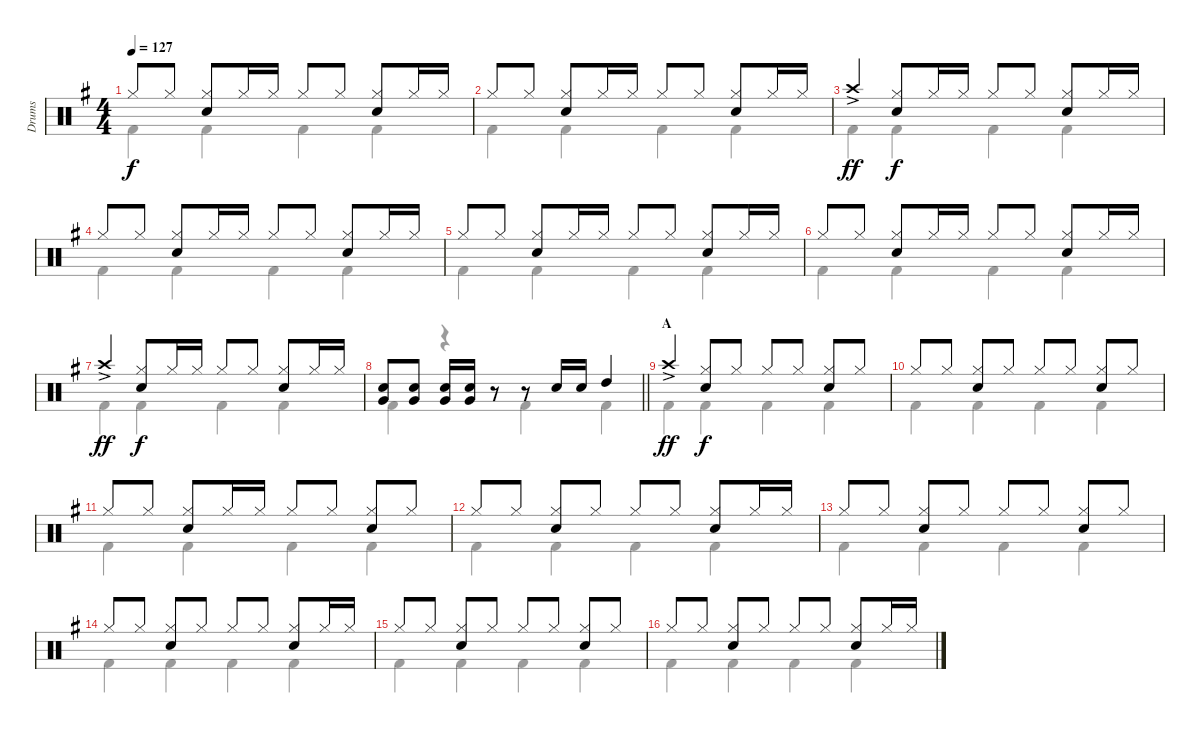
\track ("Drums" "Drums") {instrument percussion}
\staff {score}
\articulation defaults
\voice
\ts (4 4)
\tempo 127
\clef neutral
\ks g "Hi-Hat (closed)".8{dy f} "Hi-Hat (closed)".8
("Hi-Hat (closed)" "Snare (hit) 2").8 "Hi-Hat (closed)".16 "Hi-Hat (closed)".16 "Hi-Hat (closed)".8 "Hi-Hat (closed)".8 ("Hi-Hat (closed)" "Snare (hit) 2").8 "Hi-Hat (closed)".16 "Hi-Hat (closed)".16 |
"Hi-Hat (closed)".8 "Hi-Hat (closed)".8 ("Hi-Hat (closed)" "Snare (hit) 2").8 "Hi-Hat (closed)".16 "Hi-Hat (closed)".16 "Hi-Hat (closed)".8 "Hi-Hat (closed)".8 ("Hi-Hat (closed)" "Snare (hit) 2").8 "Hi-Hat (closed)".16 "Hi-Hat (closed)".16 |
"Crash high (hit)"{ac}.4{dy ff} ("Hi-Hat (closed)" "Snare (hit) 2").8{dy f} "Hi-Hat (closed)".16 "Hi-Hat (closed)".16 "Hi-Hat (closed)".8 "Hi-Hat (closed)".8 ("Hi-Hat (closed)" "Snare (hit) 2").8 "Hi-Hat (closed)".16 "Hi-Hat (closed)".16 |
"Hi-Hat (closed)".8 "Hi-Hat (closed)".8 ("Hi-Hat (closed)" "Snare (hit) 2").8 "Hi-Hat (closed)".16 "Hi-Hat (closed)".16 "Hi-Hat (closed)".8 "Hi-Hat (closed)".8 ("Hi-Hat (closed)" "Snare (hit) 2").8 "Hi-Hat (closed)".16 "Hi-Hat (closed)".16 |
"Hi-Hat (closed)".8 "Hi-Hat (closed)".8 ("Hi-Hat (closed)" "Snare (hit) 2").8 "Hi-Hat (closed)".16 "Hi-Hat (closed)".16 "Hi-Hat (closed)".8 "Hi-Hat (closed)".8 ("Hi-Hat (closed)" "Snare (hit) 2").8 "Hi-Hat (closed)".16 "Hi-Hat (closed)".16 |
"Hi-Hat (closed)".8 "Hi-Hat (closed)".8 ("Hi-Hat (closed)" "Snare (hit) 2").8 "Hi-Hat (closed)".16 "Hi-Hat (closed)".16 "Hi-Hat (closed)".8 "Hi-Hat (closed)".8 ("Hi-Hat (closed)" "Snare (hit) 2").8 "Hi-Hat (closed)".16 "Hi-Hat (closed)".16 |
"Crash high (hit)"{ac}.4{dy ff} ("Hi-Hat (closed)" "Snare (hit) 2").8{dy f} "Hi-Hat (closed)".16 "Hi-Hat (closed)".16 "Hi-Hat (closed)".8 "Hi-Hat (closed)".8 ("Hi-Hat (closed)" "Snare (hit) 2").8 "Hi-Hat (closed)".16 "Hi-Hat (closed)".16 |
\barLineRight lightlight
("Snare (hit) 2" "Very Low Tom (hit)").8 ("Snare (hit) 2" "Very Low Tom (hit)").8 ("Snare (hit) 2" "Very Low Tom (hit)").16 ("Snare (hit) 2" "Very Low Tom (hit)").16 r.8 r.8 "Snare (hit) 2".16 "Snare (hit) 2".16 "High Tom (hit)".4 |
\section ("" "A")
"Crash high (hit)"{ac}.4{dy ff} ("Hi-Hat (closed)" "Snare (hit) 2").8{dy f} "Hi-Hat (closed)".8 "Hi-Hat (closed)".8 "Hi-Hat (closed)".8 ("Hi-Hat (closed)" "Snare (hit) 2").8 "Hi-Hat (closed)".8 |
"Hi-Hat (closed)".8 "Hi-Hat (closed)".8 ("Hi-Hat (closed)" "Snare (hit) 2").8 "Hi-Hat (closed)".8 "Hi-Hat (closed)".8 "Hi-Hat (closed)".8 ("Hi-Hat (closed)" "Snare (hit) 2").8 "Hi-Hat (closed)".8 |
"Hi-Hat (closed)".8 "Hi-Hat (closed)".8 ("Hi-Hat (closed)" "Snare (hit) 2").8 "Hi-Hat (closed)".16 "Hi-Hat (closed)".16 "Hi-Hat (closed)".8 "Hi-Hat (closed)".8 ("Hi-Hat (closed)" "Snare (hit) 2").8 "Hi-Hat (closed)".8 |
"Hi-Hat (closed)".8 "Hi-Hat (closed)".8 ("Hi-Hat (closed)" "Snare (hit) 2").8 "Hi-Hat (closed)".8 "Hi-Hat (closed)".8 "Hi-Hat (closed)".8 ("Hi-Hat (closed)" "Snare (hit) 2").8 "Hi-Hat (closed)".16 "Hi-Hat (closed)".16 |
"Hi-Hat (closed)".8 "Hi-Hat (closed)".8 ("Hi-Hat (closed)" "Snare (hit) 2").8 "Hi-Hat (closed)".8 "Hi-Hat (closed)".8 "Hi-Hat (closed)".8 ("Hi-Hat (closed)" "Snare (hit) 2").8 "Hi-Hat (closed)".8 |
"Hi-Hat (closed)".8 "Hi-Hat (closed)".8 ("Hi-Hat (closed)" "Snare (hit) 2").8 "Hi-Hat (closed)".8 "Hi-Hat (closed)".8 "Hi-Hat (closed)".8 ("Hi-Hat (closed)" "Snare (hit) 2").8 "Hi-Hat (closed)".16 "Hi-Hat (closed)".16 |
"Hi-Hat (closed)".8 "Hi-Hat (closed)".8 ("Hi-Hat (closed)" "Snare (hit) 2").8 "Hi-Hat (closed)".8 "Hi-Hat (closed)".8 "Hi-Hat (closed)".8 ("Hi-Hat (closed)" "Snare (hit) 2").8 "Hi-Hat (closed)".8 |
"Hi-Hat (closed)".8 "Hi-Hat (closed)".8 ("Hi-Hat (closed)" "Snare (hit) 2").8 "Hi-Hat (closed)".8 "Hi-Hat (closed)".8 "Hi-Hat (closed)".8 ("Hi-Hat (closed)" "Snare (hit) 2").8 "Hi-Hat (closed)".16 "Hi-Hat (closed)".16
\voice
\clef neutral
\ottava regular
\simile none
\ks g "Kick (hit) 2".4{dy f} "Kick (hit) 2".4 "Kick (hit) 2".4 "Kick (hit) 2".4
|
"Kick (hit) 2".4 "Kick (hit) 2".4 "Kick (hit) 2".4 "Kick (hit) 2".4 |
"Kick (hit) 2".4 "Kick (hit) 2".4 "Kick (hit) 2".4 "Kick (hit) 2".4 |
"Kick (hit) 2".4 "Kick (hit) 2".4 "Kick (hit) 2".4 "Kick (hit) 2".4 |
"Kick (hit) 2".4 "Kick (hit) 2".4 "Kick (hit) 2".4 "Kick (hit) 2".4 |
"Kick (hit) 2".4 "Kick (hit) 2".4 "Kick (hit) 2".4 "Kick (hit) 2".4 |
"Kick (hit) 2".4 "Kick (hit) 2".4 "Kick (hit) 2".4 "Kick (hit) 2".4 |
\barLineRight lightlight "Kick (hit) 2".4
r.4 "Kick (hit) 2".4 "Kick (hit) 2".4 |
"Kick (hit) 2".4 "Kick (hit) 2".4 "Kick (hit) 2".4 "Kick (hit) 2".4 |
"Kick (hit) 2".4 "Kick (hit) 2".4 "Kick (hit) 2".4 "Kick (hit) 2".4 |
"Kick (hit) 2".4 "Kick (hit) 2".4 "Kick (hit) 2".4 "Kick (hit) 2".4 |
"Kick (hit) 2".4 "Kick (hit) 2".4 "Kick (hit) 2".4 "Kick (hit) 2".4 |
"Kick (hit) 2".4 "Kick (hit) 2".4 "Kick (hit) 2".4 "Kick (hit) 2".4 |
"Kick (hit) 2".4 "Kick (hit) 2".4 "Kick (hit) 2".4 "Kick (hit) 2".4 |
"Kick (hit) 2".4 "Kick (hit) 2".4 "Kick (hit) 2".4 "Kick (hit) 2".4 |
"Kick (hit) 2".4 "Kick (hit) 2".4 "Kick (hit) 2".4 "Kick (hit) 2".4
